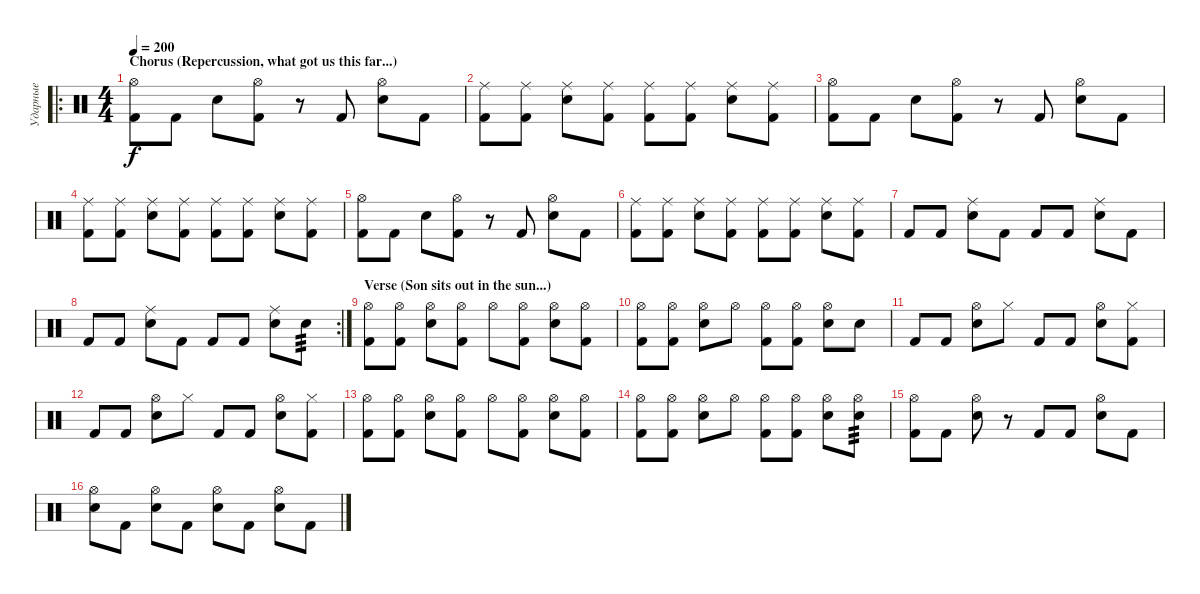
\track ("Ударные" "Ударные") {instrument percussion}
\staff {score}
\articulation defaults
\ro
\ts (4 4)
\section ("" "Chorus (Repercussion, what got us this far...)")
\tempo 200
\clef neutral
\ks c
("Kick (hit) 2" "Hi-Hat (open)").8{dy f} "Kick (hit) 2".8 "Snare (hit) 2".8 ("Kick (hit) 2" "Hi-Hat (open)").8 r.8 "Kick (hit) 2".8 ("Snare (hit) 2" "Hi-Hat (open)").8 "Kick (hit) 2".8 |
("Kick (hit) 2" "Ride (middle)").8 ("Kick (hit) 2" "Ride (middle)").8 ("Snare (hit) 2" "Ride (middle)").8 ("Kick (hit) 2" "Ride (middle)").8 ("Kick (hit) 2" "Ride (middle)").8 ("Kick (hit) 2" "Ride (middle)").8 ("Snare (hit) 2" "Ride (middle)").8 ("Kick (hit) 2" "Ride (middle)").8 |
("Kick (hit) 2" "Hi-Hat (open)").8 "Kick (hit) 2".8 "Snare (hit) 2".8 ("Kick (hit) 2" "Hi-Hat (open)").8 r.8 "Kick (hit) 2".8 ("Snare (hit) 2" "Hi-Hat (open)").8 "Kick (hit) 2".8 |
("Kick (hit) 2" "Ride (middle)").8 ("Kick (hit) 2" "Ride (middle)").8 ("Snare (hit) 2" "Ride (middle)").8 ("Kick (hit) 2" "Ride (middle)").8 ("Kick (hit) 2" "Ride (middle)").8 ("Kick (hit) 2" "Ride (middle)").8 ("Snare (hit) 2" "Ride (middle)").8 ("Kick (hit) 2" "Ride (middle)").8 |
("Kick (hit) 2" "Hi-Hat (open)").8 "Kick (hit) 2".8 "Snare (hit) 2".8 ("Kick (hit) 2" "Hi-Hat (open)").8 r.8 "Kick (hit) 2".8 ("Snare (hit) 2" "Hi-Hat (open)").8 "Kick (hit) 2".8 |
("Kick (hit) 2" "Ride (middle)").8 ("Kick (hit) 2" "Ride (middle)").8 ("Snare (hit) 2" "Ride (middle)").8 ("Kick (hit) 2" "Ride (middle)").8 ("Kick (hit) 2" "Ride (middle)").8 ("Kick (hit) 2" "Ride (middle)").8 ("Snare (hit) 2" "Ride (middle)").8 ("Kick (hit) 2" "Ride (middle)").8 |
"Kick (hit) 2".8 "Kick (hit) 2".8 ("Snare (hit) 2" "Ride (middle)").8 "Kick (hit) 2".8 "Kick (hit) 2".8 "Kick (hit) 2".8 ("Snare (hit) 2" "Ride (middle)").8 "Kick (hit) 2".8 |
\rc 2 "Kick (hit) 2".8 "Kick (hit) 2".8
("Snare (hit) 2" "Ride (middle)").8 "Kick (hit) 2".8 "Kick (hit) 2".8 "Kick (hit) 2".8 ("Snare (hit) 2" "Ride (middle)").8 "Snare (hit) 2".8{tp 3} |
\section ("" "Verse (Son sits out in the sun...)")
("Kick (hit) 2" "Hi-Hat (open)").8 ("Kick (hit) 2" "Hi-Hat (open)").8 ("Snare (hit) 2" "Hi-Hat (open)").8 ("Kick (hit) 2" "Hi-Hat (open)").8 "Hi-Hat (open)".8 ("Kick (hit) 2" "Hi-Hat (open)").8 ("Snare (hit) 2" "Hi-Hat (open)").8 ("Kick (hit) 2" "Hi-Hat (open)").8 |
("Kick (hit) 2" "Hi-Hat (open)").8 ("Kick (hit) 2" "Hi-Hat (open)").8 ("Snare (hit) 2" "Hi-Hat (open)").8 "Hi-Hat (open)".8 ("Kick (hit) 2" "Hi-Hat (open)").8 ("Kick (hit) 2" "Hi-Hat (open)").8 ("Snare (hit) 2" "Hi-Hat (open)").8 "Snare (hit) 2".8 |
"Kick (hit) 2".8 "Kick (hit) 2".8 ("Snare (hit) 2" "Hi-Hat (open)").8 "Hi-Hat (closed)".8 "Kick (hit) 2".8 "Kick (hit) 2".8 ("Snare (hit) 2" "Hi-Hat (open)").8 ("Kick (hit) 2" "Hi-Hat (closed)").8 |
"Kick (hit) 2".8 "Kick (hit) 2".8 ("Snare (hit) 2" "Hi-Hat (open)").8 "Hi-Hat (closed)".8 "Kick (hit) 2".8 "Kick (hit) 2".8 ("Snare (hit) 2" "Hi-Hat (open)").8 ("Kick (hit) 2" "Hi-Hat (closed)").8 |
("Kick (hit) 2" "Hi-Hat (open)").8 ("Kick (hit) 2" "Hi-Hat (open)").8 ("Snare (hit) 2" "Hi-Hat (open)").8 ("Kick (hit) 2" "Hi-Hat (open)").8 "Hi-Hat (open)".8 ("Kick (hit) 2" "Hi-Hat (open)").8 ("Snare (hit) 2" "Hi-Hat (open)").8 ("Kick (hit) 2" "Hi-Hat (open)").8 |
("Kick (hit) 2" "Hi-Hat (open)").8 ("Kick (hit) 2" "Hi-Hat (open)").8 ("Snare (hit) 2" "Hi-Hat (open)").8 "Hi-Hat (open)".8 ("Kick (hit) 2" "Hi-Hat (open)").8 ("Kick (hit) 2" "Hi-Hat (open)").8 ("Snare (hit) 2" "Hi-Hat (open)").8 ("Snare (hit) 2" "Hi-Hat (open)").8{tp 3} |
("Kick (hit) 2" "Hi-Hat (open)").8 "Kick (hit) 2".8 ("Snare (hit) 2" "Hi-Hat (open)").8 r.8 "Kick (hit) 2".8 "Kick (hit) 2".8 ("Snare (hit) 2" "Hi-Hat (open)").8 "Kick (hit) 2".8 |
("Snare (hit) 2" "Hi-Hat (open)").8 "Kick (hit) 2".8 ("Snare (hit) 2" "Hi-Hat (open)").8 "Kick (hit) 2".8 ("Snare (hit) 2" "Hi-Hat (open)").8 "Kick (hit) 2".8 ("Snare (hit) 2" "Hi-Hat (open)").8 "Kick (hit) 2".8
